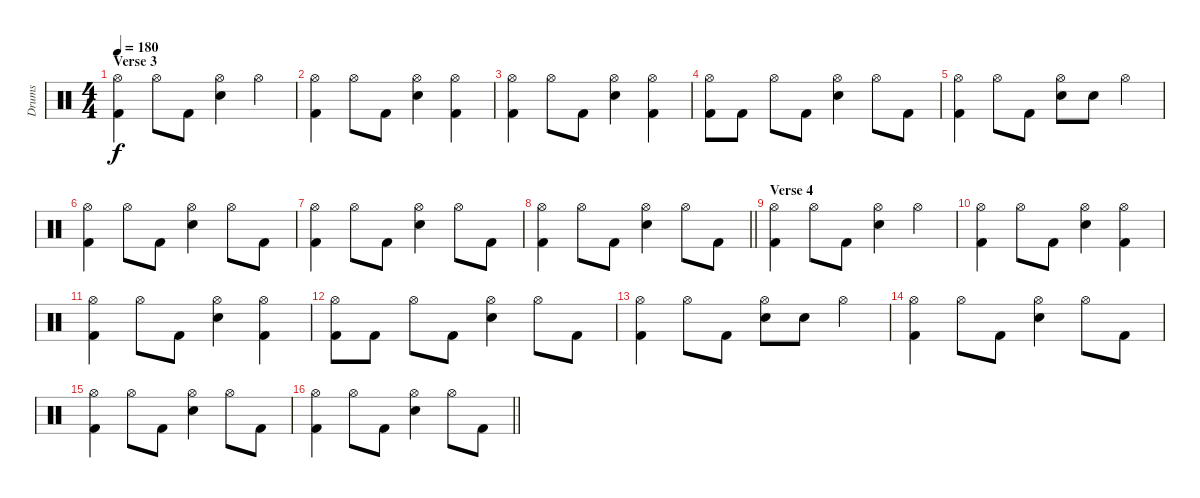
\track ("Drums" "Drums") {instrument percussion}
\staff {score}
\articulation defaults
\ts (4 4)
\section ("" "Verse 3")
\tempo 180
\clef neutral
\ks c
("Hi-Hat (open)" "Kick (hit) 2").4{dy f} "Hi-Hat (open)".8 "Kick (hit) 2".8 ("Hi-Hat (open)" "Electric Snare (hit)").4 "Hi-Hat (open)".4 |
("Hi-Hat (open)" "Kick (hit) 2").4 "Hi-Hat (open)".8 "Kick (hit) 2".8 ("Hi-Hat (open)" "Electric Snare (hit)").4 ("Hi-Hat (open)" "Kick (hit) 2").4 |
("Hi-Hat (open)" "Kick (hit) 2").4 "Hi-Hat (open)".8 "Kick (hit) 2".8 ("Hi-Hat (open)" "Electric Snare (hit)").4 ("Hi-Hat (open)" "Kick (hit) 2").4 |
("Hi-Hat (open)" "Kick (hit) 2").8 "Kick (hit) 2".8 "Hi-Hat (open)".8 "Kick (hit) 2".8 ("Hi-Hat (open)" "Electric Snare (hit)").4 "Hi-Hat (open)".8 "Kick (hit) 2".8 |
("Hi-Hat (open)" "Kick (hit) 2").4 "Hi-Hat (open)".8 "Kick (hit) 2".8 ("Hi-Hat (open)" "Electric Snare (hit)").8 "Electric Snare (hit)".8 "Hi-Hat (open)".4 |
("Hi-Hat (open)" "Kick (hit) 2").4 "Hi-Hat (open)".8 "Kick (hit) 2".8 ("Hi-Hat (open)" "Electric Snare (hit)").4 "Hi-Hat (open)".8 "Kick (hit) 2".8 |
("Hi-Hat (open)" "Kick (hit) 2").4 "Hi-Hat (open)".8 "Kick (hit) 2".8 ("Hi-Hat (open)" "Electric Snare (hit)").4 "Hi-Hat (open)".8 "Kick (hit) 2".8 |
\barLineRight lightlight
("Hi-Hat (open)" "Kick (hit) 2").4 "Hi-Hat (open)".8 "Kick (hit) 2".8 ("Hi-Hat (open)" "Electric Snare (hit)").4 "Hi-Hat (open)".8 "Kick (hit) 2".8 |
\section ("" "Verse 4")
("Hi-Hat (open)" "Kick (hit) 2").4 "Hi-Hat (open)".8 "Kick (hit) 2".8 ("Hi-Hat (open)" "Electric Snare (hit)").4 "Hi-Hat (open)".4 |
("Hi-Hat (open)" "Kick (hit) 2").4 "Hi-Hat (open)".8 "Kick (hit) 2".8 ("Hi-Hat (open)" "Electric Snare (hit)").4 ("Hi-Hat (open)" "Kick (hit) 2").4 |
("Hi-Hat (open)" "Kick (hit) 2").4 "Hi-Hat (open)".8 "Kick (hit) 2".8 ("Hi-Hat (open)" "Electric Snare (hit)").4 ("Hi-Hat (open)" "Kick (hit) 2").4 |
("Hi-Hat (open)" "Kick (hit) 2").8 "Kick (hit) 2".8 "Hi-Hat (open)".8 "Kick (hit) 2".8 ("Hi-Hat (open)" "Electric Snare (hit)").4 "Hi-Hat (open)".8 "Kick (hit) 2".8 |
("Hi-Hat (open)" "Kick (hit) 2").4 "Hi-Hat (open)".8 "Kick (hit) 2".8 ("Hi-Hat (open)" "Electric Snare (hit)").8 "Electric Snare (hit)".8 "Hi-Hat (open)".4 |
("Hi-Hat (open)" "Kick (hit) 2").4 "Hi-Hat (open)".8 "Kick (hit) 2".8 ("Hi-Hat (open)" "Electric Snare (hit)").4 "Hi-Hat (open)".8 "Kick (hit) 2".8 |
("Hi-Hat (open)" "Kick (hit) 2").4 "Hi-Hat (open)".8 "Kick (hit) 2".8 ("Hi-Hat (open)" "Electric Snare (hit)").4 "Hi-Hat (open)".8 "Kick (hit) 2".8 |
\barLineRight lightlight
("Hi-Hat (open)" "Kick (hit) 2").4 "Hi-Hat (open)".8 "Kick (hit) 2".8 ("Hi-Hat (open)" "Electric Snare (hit)").4 "Hi-Hat (open)".8 "Kick (hit) 2".8
